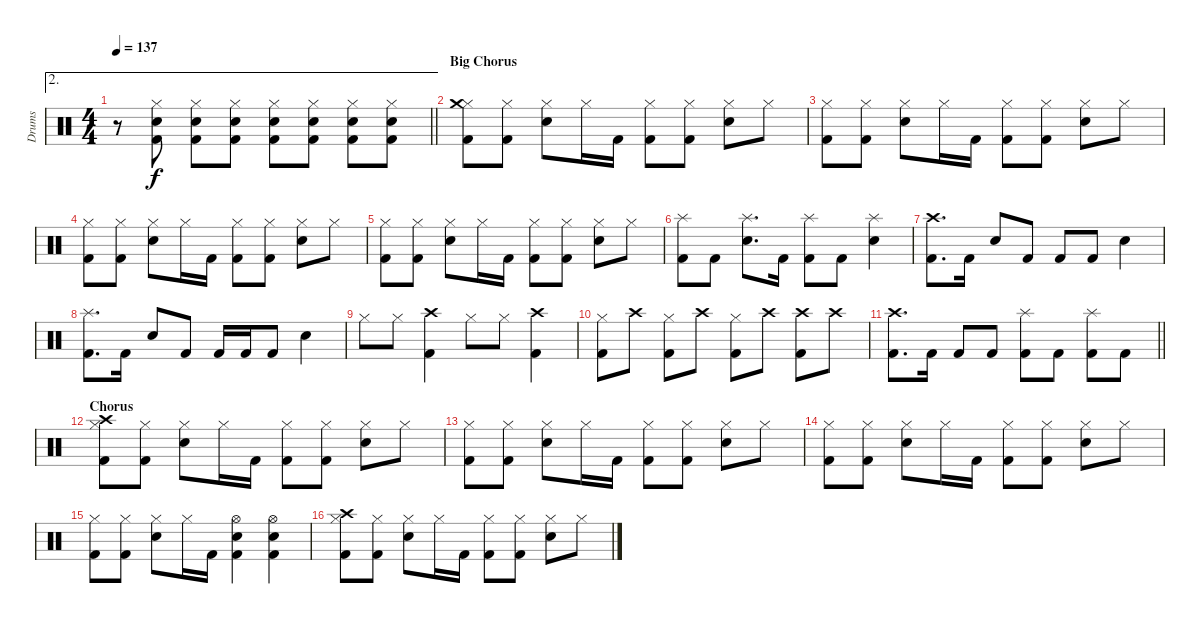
\track ("Drums" "Drums") {instrument percussion}
\staff {score}
\articulation defaults
\ae 2
\ts (4 4)
\tempo 137
\clef neutral
\barLineRight lightlight
\ks c
r.8{dy f} ("Hi-Hat (closed)" "Snare (hit) 2" "Kick (hit) 2").8 ("Hi-Hat (closed)" "Snare (hit) 2" "Kick (hit) 2").8 ("Hi-Hat (closed)" "Snare (hit) 2" "Kick (hit) 2").8 ("Hi-Hat (closed)" "Snare (hit) 2" "Kick (hit) 2").8 ("Hi-Hat (closed)" "Snare (hit) 2" "Kick (hit) 2").8 ("Hi-Hat (closed)" "Snare (hit) 2" "Kick (hit) 2").8 ("Hi-Hat (closed)" "Snare (hit) 2" "Kick (hit) 2").8 |
\section ("" "Big Chorus")
("Hi-Hat (closed)" "Crash medium (hit)" "Kick (hit) 2").8 ("Hi-Hat (closed)" "Kick (hit) 2").8 ("Hi-Hat (closed)" "Snare (hit) 2").8 "Hi-Hat (closed)".16 "Kick (hit) 2".16 ("Hi-Hat (closed)" "Kick (hit) 2").8 ("Hi-Hat (closed)" "Kick (hit) 2").8 ("Hi-Hat (closed)" "Snare (hit) 2").8 "Hi-Hat (closed)".8 |
("Hi-Hat (closed)" "Kick (hit) 2").8 ("Hi-Hat (closed)" "Kick (hit) 2").8 ("Hi-Hat (closed)" "Snare (hit) 2").8 "Hi-Hat (closed)".16 "Kick (hit) 2".16 ("Hi-Hat (closed)" "Kick (hit) 2").8 ("Hi-Hat (closed)" "Kick (hit) 2").8 ("Hi-Hat (closed)" "Snare (hit) 2").8 "Hi-Hat (closed)".8 |
("Hi-Hat (closed)" "Kick (hit) 2").8 ("Hi-Hat (closed)" "Kick (hit) 2").8 ("Hi-Hat (closed)" "Snare (hit) 2").8 "Hi-Hat (closed)".16 "Kick (hit) 2".16 ("Hi-Hat (closed)" "Kick (hit) 2").8 ("Hi-Hat (closed)" "Kick (hit) 2").8 ("Hi-Hat (closed)" "Snare (hit) 2").8 "Hi-Hat (closed)".8 |
("Hi-Hat (closed)" "Kick (hit) 2").8 ("Hi-Hat (closed)" "Kick (hit) 2").8 ("Hi-Hat (closed)" "Snare (hit) 2").8 "Hi-Hat (closed)".16 "Kick (hit) 2".16 ("Hi-Hat (closed)" "Kick (hit) 2").8 ("Hi-Hat (closed)" "Kick (hit) 2").8 ("Hi-Hat (closed)" "Snare (hit) 2").8 "Hi-Hat (closed)".8 |
("Splash (hit)" "Kick (hit) 2").8 "Kick (hit) 2".8 ("Splash (hit)" "Snare (hit) 2").8{d} "Kick (hit) 2".16 ("Splash (hit)" "Kick (hit) 2").8 "Kick (hit) 2".8 ("Splash (hit)" "Snare (hit) 2").4 |
("Crash high (hit)" "Kick (hit) 2").8{d} "Kick (hit) 2".16 "Snare (hit) 2".8 "Kick (hit) 2".8 "Kick (hit) 2".8 "Kick (hit) 2".8 "Snare (hit) 2".4 |
("Splash (hit)" "Kick (hit) 2").8{d} "Kick (hit) 2".16 "Snare (hit) 2".8 "Kick (hit) 2".8 "Kick (hit) 2".16 "Kick (hit) 2".16 "Kick (hit) 2".8 "Snare (hit) 2".4 |
"Hi-Hat (closed)".8 "Hi-Hat (closed)".8 ("Crash high (hit)" "Kick (hit) 2").4 "Hi-Hat (closed)".8 "Hi-Hat (closed)".8 ("Crash high (hit)" "Kick (hit) 2").4 |
("Hi-Hat (closed)" "Kick (hit) 2").8 "Crash high (hit)".8 ("Hi-Hat (closed)" "Kick (hit) 2").8 "Crash high (hit)".8 ("Hi-Hat (closed)" "Kick (hit) 2").8 "Crash high (hit)".8 ("Crash high (hit)" "Kick (hit) 2").8 "Crash high (hit)".8 |
\barLineRight lightlight
("Crash high (hit)" "Kick (hit) 2").8{d} "Kick (hit) 2".16 "Kick (hit) 2".8 "Kick (hit) 2".8 ("Splash (hit)" "Kick (hit) 2").8 "Kick (hit) 2".8 ("Splash (hit)" "Kick (hit) 2").8 "Kick (hit) 2".8 |
\section ("" "Chorus")
("Hi-Hat (closed)" "Crash high (hit)" "Kick (hit) 2").8 ("Hi-Hat (closed)" "Kick (hit) 2").8 ("Hi-Hat (closed)" "Snare (hit) 2").8 "Hi-Hat (closed)".16 "Kick (hit) 2".16 ("Hi-Hat (closed)" "Kick (hit) 2").8 ("Hi-Hat (closed)" "Kick (hit) 2").8 ("Hi-Hat (closed)" "Snare (hit) 2").8 "Hi-Hat (closed)".8 |
("Hi-Hat (closed)" "Kick (hit) 2").8 ("Hi-Hat (closed)" "Kick (hit) 2").8 ("Hi-Hat (closed)" "Snare (hit) 2").8 "Hi-Hat (closed)".16 "Kick (hit) 2".16 ("Hi-Hat (closed)" "Kick (hit) 2").8 ("Hi-Hat (closed)" "Kick (hit) 2").8 ("Hi-Hat (closed)" "Snare (hit) 2").8 "Hi-Hat (closed)".8 |
("Hi-Hat (closed)" "Kick (hit) 2").8 ("Hi-Hat (closed)" "Kick (hit) 2").8 ("Hi-Hat (closed)" "Snare (hit) 2").8 "Hi-Hat (closed)".16 "Kick (hit) 2".16 ("Hi-Hat (closed)" "Kick (hit) 2").8 ("Hi-Hat (closed)" "Kick (hit) 2").8 ("Hi-Hat (closed)" "Snare (hit) 2").8 "Hi-Hat (closed)".8 |
("Hi-Hat (closed)" "Kick (hit) 2").8 ("Hi-Hat (closed)" "Kick (hit) 2").8 ("Hi-Hat (closed)" "Snare (hit) 2").8 "Hi-Hat (closed)".16 "Kick (hit) 2".16 ("Hi-Hat (open)" "Snare (hit) 2" "Kick (hit) 2").4 ("Hi-Hat (open)" "Snare (hit) 2" "Kick (hit) 2").4 |
("Hi-Hat (closed)" "Crash high (hit)" "Kick (hit) 2").8 ("Hi-Hat (closed)" "Kick (hit) 2").8 ("Hi-Hat (closed)" "Snare (hit) 2").8 "Hi-Hat (closed)".16 "Kick (hit) 2".16 ("Hi-Hat (closed)" "Kick (hit) 2").8 ("Hi-Hat (closed)" "Kick (hit) 2").8 ("Hi-Hat (closed)" "Snare (hit) 2").8 "Hi-Hat (closed)".8
